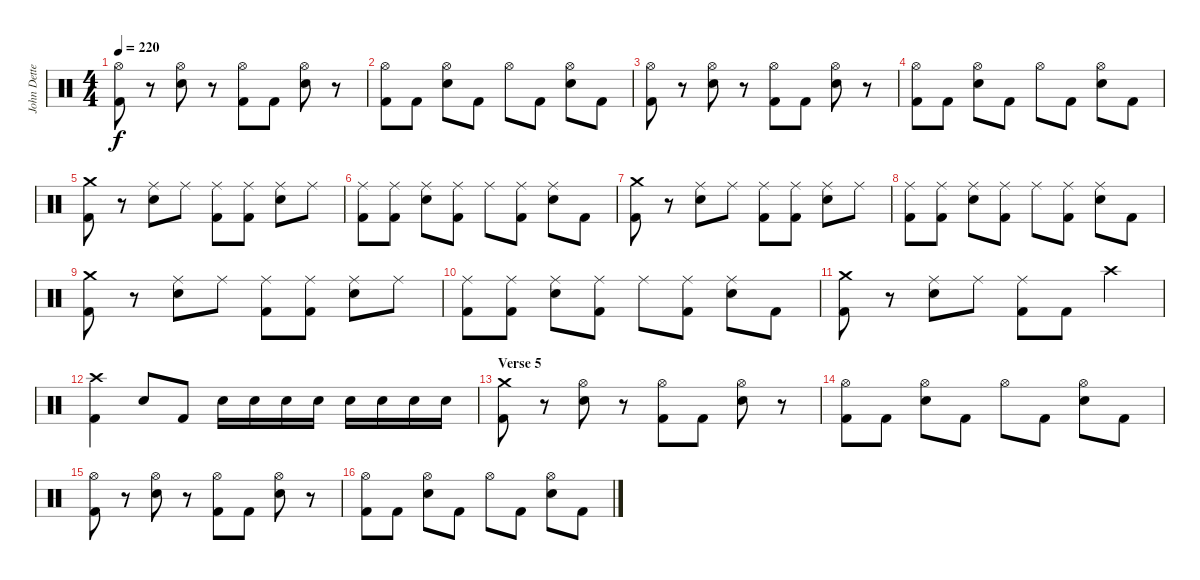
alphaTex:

\track ("John Dette" "John Dette") {instrument percussion}
\staff {score}
\articulation defaults
\ts (4 4)
\tempo 220
\clef neutral
\ks c
("Hi-Hat (open)" "Kick (hit) 2").8{dy f} r.8 ("Hi-Hat (open)" "Snare (hit) 2").8 r.8 ("Hi-Hat (open)" "Kick (hit) 2").8 "Kick (hit) 2".8 ("Hi-Hat (open)" "Snare (hit) 2").8 r.8 |
("Hi-Hat (open)" "Kick (hit) 2").8 "Kick (hit) 2".8 ("Hi-Hat (open)" "Snare (hit) 2").8 "Kick (hit) 2".8 "Hi-Hat (open)".8 "Kick (hit) 2".8 ("Hi-Hat (open)" "Snare (hit) 2").8 "Kick (hit) 2".8 |
("Hi-Hat (open)" "Kick (hit) 2").8 r.8 ("Hi-Hat (open)" "Snare (hit) 2").8 r.8 ("Hi-Hat (open)" "Kick (hit) 2").8 "Kick (hit) 2".8 ("Hi-Hat (open)" "Snare (hit) 2").8 r.8 |
("Hi-Hat (open)" "Kick (hit) 2").8 "Kick (hit) 2".8 ("Hi-Hat (open)" "Snare (hit) 2").8 "Kick (hit) 2".8 "Hi-Hat (open)".8 "Kick (hit) 2".8 ("Hi-Hat (open)" "Snare (hit) 2").8 "Kick (hit) 2".8 |
("Crash medium (hit)" "Kick (hit) 2").8 r.8 ("Ride (middle)" "Snare (hit) 2").8 "Ride (middle)".8 ("Ride (middle)" "Kick (hit) 2").8 ("Ride (middle)" "Kick (hit) 2").8 ("Ride (middle)" "Snare (hit) 2").8 "Ride (middle)".8 |
("Ride (middle)" "Kick (hit) 2").8 ("Ride (middle)" "Kick (hit) 2").8 ("Ride (middle)" "Snare (hit) 2").8 ("Ride (middle)" "Kick (hit) 2").8 "Ride (middle)".8 ("Ride (middle)" "Kick (hit) 2").8 ("Ride (middle)" "Snare (hit) 2").8 "Kick (hit) 2".8 |
("Crash medium (hit)" "Kick (hit) 2").8 r.8 ("Ride (middle)" "Snare (hit) 2").8 "Ride (middle)".8 ("Ride (middle)" "Kick (hit) 2").8 ("Ride (middle)" "Kick (hit) 2").8 ("Ride (middle)" "Snare (hit) 2").8 "Ride (middle)".8 |
("Ride (middle)" "Kick (hit) 2").8 ("Ride (middle)" "Kick (hit) 2").8 ("Ride (middle)" "Snare (hit) 2").8 ("Ride (middle)" "Kick (hit) 2").8 "Ride (middle)".8 ("Ride (middle)" "Kick (hit) 2").8 ("Ride (middle)" "Snare (hit) 2").8 "Kick (hit) 2".8 |
("Crash medium (hit)" "Kick (hit) 2").8 r.8 ("Ride (middle)" "Snare (hit) 2").8 "Ride (middle)".8 ("Ride (middle)" "Kick (hit) 2").8 ("Ride (middle)" "Kick (hit) 2").8 ("Ride (middle)" "Snare (hit) 2").8 "Ride (middle)".8 |
("Ride (middle)" "Kick (hit) 2").8 ("Ride (middle)" "Kick (hit) 2").8 ("Ride (middle)" "Snare (hit) 2").8 ("Ride (middle)" "Kick (hit) 2").8 "Ride (middle)".8 ("Ride (middle)" "Kick (hit) 2").8 ("Ride (middle)" "Snare (hit) 2").8 "Kick (hit) 2".8 |
("Crash medium (hit)" "Kick (hit) 2").8 r.8 ("Ride (middle)" "Snare (hit) 2").8 "Ride (middle)".8 ("Ride (middle)" "Kick (hit) 2").8 "Kick (hit) 2".8 "Crash high (hit)".4 |
("Crash high (hit)" "Kick (hit) 2").4 "Snare (hit) 2".8 "Kick (hit) 2".8 "Snare (hit) 2".16 "Snare (hit) 2".16 "Snare (hit) 2".16 "Snare (hit) 2".16 "Snare (hit) 2".16 "Snare (hit) 2".16 "Snare (hit) 2".16 "Snare (hit) 2".16 |
\section ("" "Verse 5")
("Crash medium (hit)" "Kick (hit) 2").8 r.8 ("Hi-Hat (open)" "Snare (hit) 2").8 r.8 ("Hi-Hat (open)" "Kick (hit) 2").8 "Kick (hit) 2".8 ("Hi-Hat (open)" "Snare (hit) 2").8 r.8 |
("Hi-Hat (open)" "Kick (hit) 2").8 "Kick (hit) 2".8 ("Hi-Hat (open)" "Snare (hit) 2").8 "Kick (hit) 2".8 "Hi-Hat (open)".8 "Kick (hit) 2".8 ("Hi-Hat (open)" "Snare (hit) 2").8 "Kick (hit) 2".8 |
("Hi-Hat (open)" "Kick (hit) 2").8 r.8 ("Hi-Hat (open)" "Snare (hit) 2").8 r.8 ("Hi-Hat (open)" "Kick (hit) 2").8 "Kick (hit) 2".8 ("Hi-Hat (open)" "Snare (hit) 2").8 r.8 |
("Hi-Hat (open)" "Kick (hit) 2").8 "Kick (hit) 2".8 ("Hi-Hat (open)" "Snare (hit) 2").8 "Kick (hit) 2".8 "Hi-Hat (open)".8 "Kick (hit) 2".8 ("Hi-Hat (open)" "Snare (hit) 2").8 "Kick (hit) 2".8
